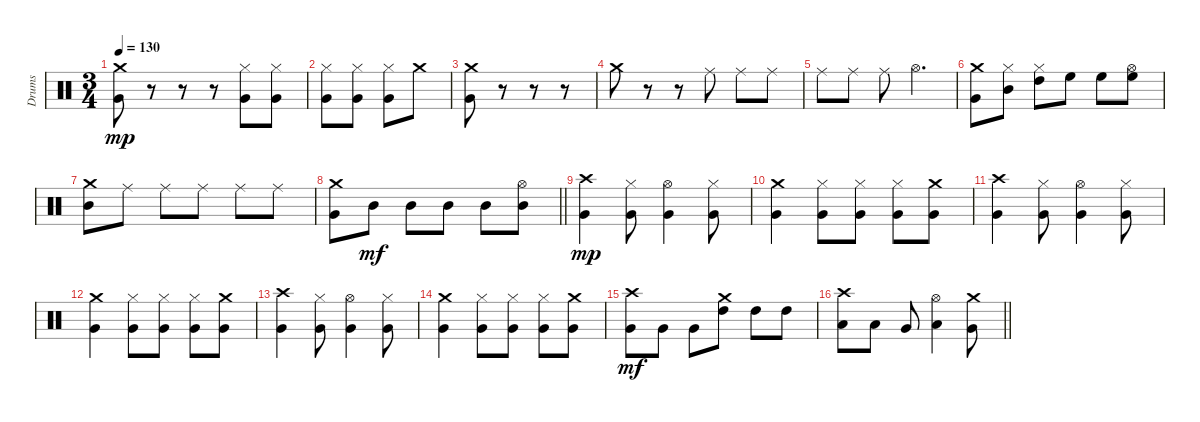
\track ("Drums" "Drums") {instrument percussion}
\staff {score}
\articulation defaults
\ts (3 4)
\section ("" "")
\tempo 130
\clef neutral
\ks c
("Crash medium (hit)" "Very Low Tom (hit)").8{dy mp} r.8 r.8 r.8 ("Hi-Hat (closed)" "Very Low Tom (hit)").8 ("Hi-Hat (closed)" "Very Low Tom (hit)").8 |
("Hi-Hat (closed)" "Very Low Tom (hit)").8 ("Hi-Hat (closed)" "Very Low Tom (hit)").8 ("Hi-Hat (closed)" "Very Low Tom (hit)").8 "Crash medium (hit)".8 |
("Crash medium (hit)" "Very Low Tom (hit)").8 r.8 r.8 r.8 |
"Crash medium (hit)".8 r.8 r.8 "Ride (middle)".8 "Ride (middle)".8 "Ride (middle)".8 |
"Ride (middle)".8 "Ride (middle)".8 "Ride (middle)".8 "Hi-Hat (open)".4{d} |
("Crash medium (hit)" "Very Low Tom (hit)").8 ("Hi-Hat (closed)" "Mid Tom (hit)").8 ("Hi-Hat (closed)" "High Tom (hit)").8 "High Floor Tom (hit)".8 "High Floor Tom (hit)".8 ("Hi-Hat (open)" "High Floor Tom (hit)").8 |
("Crash medium (hit)" "Mid Tom (hit)").8 "Ride (middle)".8 "Ride (middle)".8 "Ride (middle)".8 "Ride (middle)".8 "Ride (middle)".8 |
\barLineRight lightlight
("Crash medium (hit)" "Very Low Tom (hit)").8 "Mid Tom (hit)".8{dy mf} "Mid Tom (hit)".8 "Mid Tom (hit)".8 "Mid Tom (hit)".8 ("Hi-Hat (open)" "Mid Tom (hit)").8 |
\section ("" "")
("Crash high (hit)" "Very Low Tom (hit)").4{dy mp} ("Hi-Hat (closed)" "Very Low Tom (hit)").8 ("Hi-Hat (open)" "Very Low Tom (hit)").4 ("Hi-Hat (closed)" "Very Low Tom (hit)").8 |
("Crash medium (hit)" "Very Low Tom (hit)").4 ("Hi-Hat (closed)" "Very Low Tom (hit)").8 ("Hi-Hat (closed)" "Very Low Tom (hit)").8 ("Hi-Hat (closed)" "Very Low Tom (hit)").8 ("Crash medium (hit)" "Very Low Tom (hit)").8 |
("Crash high (hit)" "Very Low Tom (hit)").4 ("Hi-Hat (closed)" "Very Low Tom (hit)").8 ("Hi-Hat (open)" "Very Low Tom (hit)").4 ("Hi-Hat (closed)" "Very Low Tom (hit)").8 |
("Crash medium (hit)" "Very Low Tom (hit)").4 ("Hi-Hat (closed)" "Very Low Tom (hit)").8 ("Hi-Hat (closed)" "Very Low Tom (hit)").8 ("Hi-Hat (closed)" "Very Low Tom (hit)").8 ("Crash medium (hit)" "Very Low Tom (hit)").8 |
("Crash high (hit)" "Very Low Tom (hit)").4 ("Hi-Hat (closed)" "Very Low Tom (hit)").8 ("Hi-Hat (open)" "Very Low Tom (hit)").4 ("Hi-Hat (closed)" "Very Low Tom (hit)").8 |
("Crash medium (hit)" "Very Low Tom (hit)").4 ("Hi-Hat (closed)" "Very Low Tom (hit)").8 ("Hi-Hat (closed)" "Very Low Tom (hit)").8 ("Hi-Hat (closed)" "Very Low Tom (hit)").8 ("Crash medium (hit)" "Very Low Tom (hit)").8 |
("Crash high (hit)" "Very Low Tom (hit)").8{dy mf} "Very Low Tom (hit)".8 "Very Low Tom (hit)".8 ("Crash medium (hit)" "High Tom (hit)").8 "High Tom (hit)".8 "High Tom (hit)".8 |
\barLineRight lightlight
("Crash high (hit)" "Low Tom (hit)").8 "Low Tom (hit)".8 "Very Low Tom (hit)".8 ("Hi-Hat (open)" "Low Tom (hit)").4 ("Crash medium (hit)" "Very Low Tom (hit)").8
